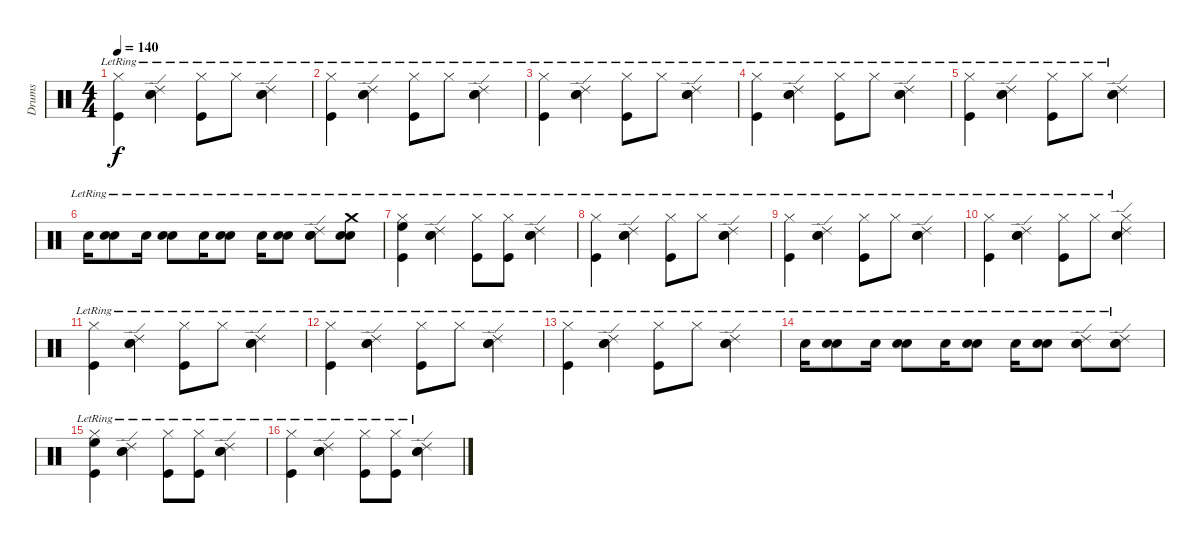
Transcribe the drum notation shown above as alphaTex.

\track ("Drums" "Drums") {instrument percussion}
\staff {score}
\articulation defaults
\ts (4 4)
\tempo 140
\clef neutral
\ks c
("Hi-Hat (closed)"{lr} "Kick (hit)"{lr}).4{dy f} ("Electric Snare (hit)"{lr} "Ride (edge) 2"{lr} "Snare (hit) 2"{lr}).4 ("Hi-Hat (closed)"{lr} "Kick (hit)"{lr}).8 "Hi-Hat (closed)"{lr}.8 ("Electric Snare (hit)"{lr} "Ride (edge) 2"{lr} "Snare (hit) 2"{lr}).4 |
("Hi-Hat (closed)"{lr} "Kick (hit)"{lr}).4 ("Electric Snare (hit)"{lr} "Ride (edge) 2"{lr} "Snare (hit) 2"{lr}).4 ("Hi-Hat (closed)"{lr} "Kick (hit)"{lr}).8 "Hi-Hat (closed)"{lr}.8 ("Electric Snare (hit)"{lr} "Ride (edge) 2"{lr} "Snare (hit) 2"{lr}).4 |
("Hi-Hat (closed)"{lr} "Kick (hit)"{lr}).4 ("Electric Snare (hit)"{lr} "Ride (edge) 2"{lr} "Snare (hit) 2"{lr}).4 ("Hi-Hat (closed)"{lr} "Kick (hit)"{lr}).8 "Hi-Hat (closed)"{lr}.8 ("Electric Snare (hit)"{lr} "Ride (edge) 2"{lr} "Snare (hit) 2"{lr}).4 |
("Hi-Hat (closed)"{lr} "Kick (hit)"{lr}).4 ("Electric Snare (hit)"{lr} "Ride (edge) 2"{lr} "Snare (hit) 2"{lr}).4 ("Hi-Hat (closed)"{lr} "Kick (hit)"{lr}).8 "Hi-Hat (closed)"{lr}.8 ("Electric Snare (hit)"{lr} "Ride (edge) 2"{lr} "Snare (hit) 2"{lr}).4 |
("Hi-Hat (closed)"{lr} "Kick (hit)"{lr}).4 ("Electric Snare (hit)"{lr} "Ride (edge) 2"{lr} "Snare (hit) 2"{lr}).4 ("Hi-Hat (closed)"{lr} "Kick (hit)"{lr}).8 "Hi-Hat (closed)"{lr}.8 ("Electric Snare (hit)"{lr} "Ride (edge) 2"{lr} "Snare (hit) 2"{lr}).4 |
"Snare (hit) 2"{lr}.16 ("Snare (hit) 2"{lr} "Electric Snare (hit)"{lr}).8 "Snare (hit) 2"{lr}.16 ("Snare (hit) 2"{lr} "Electric Snare (hit)"{lr}).8 "Snare (hit) 2"{lr}.16 ("Snare (hit) 2"{lr} "Electric Snare (hit)"{lr}).8 "Snare (hit) 2"{lr}.16 ("Snare (hit) 2"{lr} "Electric Snare (hit)"{lr}).8 ("Snare (hit) 2"{lr} "Electric Snare (hit)"{lr} "Ride (edge) 2"{lr}).8 ("Snare (hit) 2"{lr} "Electric Snare (hit)"{lr} "Crash medium (hit)"{lr}).8 |
("Hi-Hat (closed)"{lr} "Kick (hit)"{lr} "High Floor Tom (hit)"{lr}).4 ("Electric Snare (hit)"{lr} "Ride (edge) 2"{lr} "Snare (hit) 2"{lr}).4 ("Hi-Hat (closed)"{lr} "Kick (hit)"{lr}).8 ("Hi-Hat (closed)"{lr} "Kick (hit)").8 ("Electric Snare (hit)"{lr} "Ride (edge) 2"{lr} "Snare (hit) 2"{lr}).4 |
("Hi-Hat (closed)"{lr} "Kick (hit)"{lr}).4 ("Electric Snare (hit)"{lr} "Ride (edge) 2"{lr} "Snare (hit) 2"{lr}).4 ("Hi-Hat (closed)"{lr} "Kick (hit)"{lr}).8 "Hi-Hat (closed)"{lr}.8 ("Electric Snare (hit)"{lr} "Ride (edge) 2"{lr} "Snare (hit) 2"{lr}).4 |
("Hi-Hat (closed)"{lr} "Kick (hit)"{lr}).4 ("Electric Snare (hit)"{lr} "Ride (edge) 2"{lr} "Snare (hit) 2"{lr}).4 ("Hi-Hat (closed)"{lr} "Kick (hit)"{lr}).8 "Hi-Hat (closed)"{lr}.8 ("Electric Snare (hit)"{lr} "Ride (edge) 2"{lr} "Snare (hit) 2"{lr}).4 |
("Hi-Hat (closed)"{lr} "Kick (hit)"{lr}).4 ("Electric Snare (hit)"{lr} "Ride (edge) 2"{lr} "Snare (hit) 2"{lr}).4 ("Hi-Hat (closed)"{lr} "Kick (hit)"{lr}).8 "Hi-Hat (closed)"{lr}.8 ("Hi-Hat (closed)"{lr} "Ride (edge) 2"{lr} "Snare (hit) 2"{lr}).4 |
("Hi-Hat (closed)"{lr} "Kick (hit)"{lr}).4 ("Electric Snare (hit)"{lr} "Ride (edge) 2"{lr} "Snare (hit) 2"{lr}).4 ("Hi-Hat (closed)"{lr} "Kick (hit)"{lr}).8 "Hi-Hat (closed)"{lr}.8 ("Electric Snare (hit)"{lr} "Ride (edge) 2"{lr} "Snare (hit) 2"{lr}).4 |
("Hi-Hat (closed)"{lr} "Kick (hit)"{lr}).4 ("Electric Snare (hit)"{lr} "Ride (edge) 2"{lr} "Snare (hit) 2"{lr}).4 ("Hi-Hat (closed)"{lr} "Kick (hit)"{lr}).8 "Hi-Hat (closed)"{lr}.8 ("Electric Snare (hit)"{lr} "Ride (edge) 2"{lr} "Snare (hit) 2"{lr}).4 |
("Hi-Hat (closed)"{lr} "Kick (hit)"{lr}).4 ("Electric Snare (hit)"{lr} "Ride (edge) 2"{lr} "Snare (hit) 2"{lr}).4 ("Hi-Hat (closed)"{lr} "Kick (hit)"{lr}).8 "Hi-Hat (closed)"{lr}.8 ("Electric Snare (hit)"{lr} "Ride (edge) 2"{lr} "Snare (hit) 2"{lr}).4 |
"Snare (hit) 2"{lr}.16 ("Snare (hit) 2"{lr} "Electric Snare (hit)"{lr}).8 "Snare (hit) 2"{lr}.16 ("Snare (hit) 2"{lr} "Electric Snare (hit)"{lr}).8 "Snare (hit) 2"{lr}.16 ("Snare (hit) 2"{lr} "Electric Snare (hit)"{lr}).8 "Snare (hit) 2"{lr}.16 ("Snare (hit) 2"{lr} "Electric Snare (hit)"{lr}).8 ("Snare (hit) 2"{lr} "Electric Snare (hit)"{lr} "Ride (edge) 2"{lr}).8 ("Snare (hit) 2"{lr} "Electric Snare (hit)"{lr} "Ride (edge) 2"{lr}).8 |
("Hi-Hat (closed)"{lr} "Kick (hit)"{lr} "High Floor Tom (hit)"{lr}).4 ("Electric Snare (hit)"{lr} "Ride (edge) 2"{lr} "Snare (hit) 2"{lr}).4 ("Hi-Hat (closed)"{lr} "Kick (hit)"{lr}).8 ("Hi-Hat (closed)"{lr} "Kick (hit)").8 ("Electric Snare (hit)"{lr} "Ride (edge) 2"{lr} "Snare (hit) 2"{lr}).4 |
("Hi-Hat (closed)"{lr} "Kick (hit)"{lr}).4 ("Electric Snare (hit)"{lr} "Ride (edge) 2"{lr} "Snare (hit) 2"{lr}).4 ("Hi-Hat (closed)"{lr} "Kick (hit)"{lr}).8 ("Hi-Hat (closed)"{lr} "Kick (hit)").8 ("Electric Snare (hit)"{lr} "Ride (edge) 2"{lr} "Snare (hit) 2"{lr}).4
